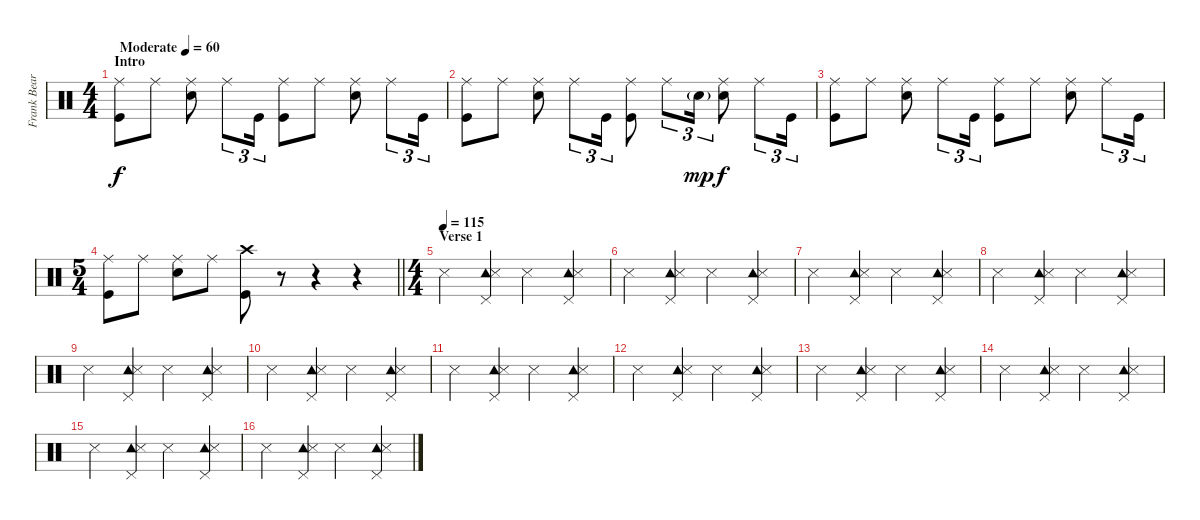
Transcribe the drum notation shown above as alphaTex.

\track ("Frank Beard" "Frank Bear") {instrument percussion}
\staff {score}
\articulation defaults
\ts (4 4)
\section ("" "Intro")
\tempo (60 "Moderate")
\clef neutral
\ks c
("Ride (middle)" "Kick (hit)").8{dy f} "Ride (middle)".8 ("Ride (middle)" "Snare (hit) 2").8 "Ride (middle)".8{tu (3 2)} "Kick (hit)".16{tu (3 2)} ("Ride (middle)" "Kick (hit)").8 "Ride (middle)".8 ("Ride (middle)" "Snare (hit) 2").8 "Ride (middle)".8{tu (3 2)} "Kick (hit)".16{tu (3 2)} |
("Ride (middle)" "Kick (hit)").8 "Ride (middle)".8 ("Ride (middle)" "Snare (hit) 2").8 "Ride (middle)".8{tu (3 2)} "Kick (hit)".16{tu (3 2)} ("Ride (middle)" "Kick (hit)").8 "Ride (middle)".8{tu (3 2)} "Snare (hit) 2"{g}.16{tu (3 2) dy mp} ("Ride (middle)" "Snare (hit) 2").8{dy f} "Ride (middle)".8{tu (3 2)} "Kick (hit)".16{tu (3 2)} |
("Ride (middle)" "Kick (hit)").8 "Ride (middle)".8 ("Ride (middle)" "Snare (hit) 2").8 "Ride (middle)".8{tu (3 2)} "Kick (hit)".16{tu (3 2)} ("Ride (middle)" "Kick (hit)").8 "Ride (middle)".8 ("Ride (middle)" "Snare (hit) 2").8 "Ride (middle)".8{tu (3 2)} "Kick (hit)".16{tu (3 2)} |
\ts (5 4)
\barLineRight lightlight
("Ride (middle)" "Kick (hit)").8 "Ride (middle)".8 ("Ride (middle)" "Snare (hit) 2").8 "Ride (middle)".8 ("Crash high (hit)" "Kick (hit)").8 r.8 r.4 r.4 |
\ts (4 4)
\section ("" "Verse 1")
\tempo (115)
"Snare (side stick) 3".4 ("Tambourine (hit)" "Snare (side stick) 3" "Pedal Hi-Hat (hit)").4 "Snare (side stick) 3".4 ("Tambourine (hit)" "Snare (side stick) 3" "Pedal Hi-Hat (hit)").4 |
"Snare (side stick) 3".4 ("Tambourine (hit)" "Snare (side stick) 3" "Pedal Hi-Hat (hit)").4 "Snare (side stick) 3".4 ("Tambourine (hit)" "Snare (side stick) 3" "Pedal Hi-Hat (hit)").4 |
"Snare (side stick) 3".4 ("Tambourine (hit)" "Snare (side stick) 3" "Pedal Hi-Hat (hit)").4 "Snare (side stick) 3".4 ("Tambourine (hit)" "Snare (side stick) 3" "Pedal Hi-Hat (hit)").4 |
"Snare (side stick) 3".4 ("Tambourine (hit)" "Snare (side stick) 3" "Pedal Hi-Hat (hit)").4 "Snare (side stick) 3".4 ("Tambourine (hit)" "Snare (side stick) 3" "Pedal Hi-Hat (hit)").4 |
"Snare (side stick) 3".4 ("Tambourine (hit)" "Snare (side stick) 3" "Pedal Hi-Hat (hit)").4 "Snare (side stick) 3".4 ("Tambourine (hit)" "Snare (side stick) 3" "Pedal Hi-Hat (hit)").4 |
"Snare (side stick) 3".4 ("Tambourine (hit)" "Snare (side stick) 3" "Pedal Hi-Hat (hit)").4 "Snare (side stick) 3".4 ("Tambourine (hit)" "Snare (side stick) 3" "Pedal Hi-Hat (hit)").4 |
"Snare (side stick) 3".4 ("Tambourine (hit)" "Snare (side stick) 3" "Pedal Hi-Hat (hit)").4 "Snare (side stick) 3".4 ("Tambourine (hit)" "Snare (side stick) 3" "Pedal Hi-Hat (hit)").4 |
"Snare (side stick) 3".4 ("Tambourine (hit)" "Snare (side stick) 3" "Pedal Hi-Hat (hit)").4 "Snare (side stick) 3".4 ("Tambourine (hit)" "Snare (side stick) 3" "Pedal Hi-Hat (hit)").4 |
"Snare (side stick) 3".4 ("Tambourine (hit)" "Snare (side stick) 3" "Pedal Hi-Hat (hit)").4 "Snare (side stick) 3".4 ("Tambourine (hit)" "Snare (side stick) 3" "Pedal Hi-Hat (hit)").4 |
"Snare (side stick) 3".4 ("Tambourine (hit)" "Snare (side stick) 3" "Pedal Hi-Hat (hit)").4 "Snare (side stick) 3".4 ("Tambourine (hit)" "Snare (side stick) 3" "Pedal Hi-Hat (hit)").4 |
"Snare (side stick) 3".4 ("Tambourine (hit)" "Snare (side stick) 3" "Pedal Hi-Hat (hit)").4 "Snare (side stick) 3".4 ("Tambourine (hit)" "Snare (side stick) 3" "Pedal Hi-Hat (hit)").4 |
"Snare (side stick) 3".4 ("Tambourine (hit)" "Snare (side stick) 3" "Pedal Hi-Hat (hit)").4 "Snare (side stick) 3".4 ("Tambourine (hit)" "Snare (side stick) 3" "Pedal Hi-Hat (hit)").4
